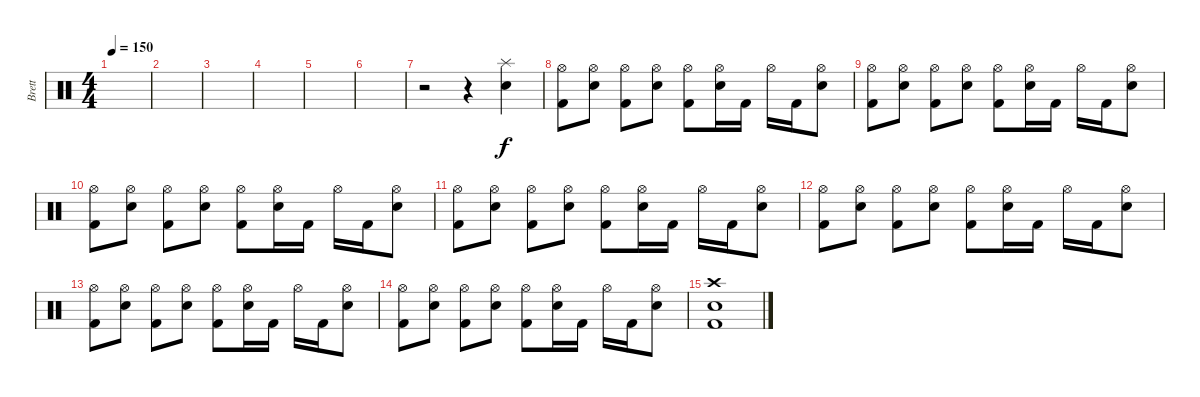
\track ("Brett" "Brett") {instrument percussion}
\staff {score}
\articulation defaults
\ts (4 4)
\tempo 150
\clef neutral
\ks c
|
|
|
|
|
|
r.2 r.4 ("Splash (hit)" "Snare (hit) 2").4 |
("Hi-Hat (open)" "Kick (hit) 2").8 ("Hi-Hat (open)" "Snare (hit) 2").8 ("Hi-Hat (open)" "Kick (hit) 2").8 ("Hi-Hat (open)" "Snare (hit) 2").8 ("Hi-Hat (open)" "Kick (hit) 2").8 ("Hi-Hat (open)" "Snare (hit) 2").16 "Kick (hit) 2".16 "Hi-Hat (open)".16 "Kick (hit) 2".16 ("Hi-Hat (open)" "Snare (hit) 2").8 |
("Hi-Hat (open)" "Kick (hit) 2").8 ("Hi-Hat (open)" "Snare (hit) 2").8 ("Hi-Hat (open)" "Kick (hit) 2").8 ("Hi-Hat (open)" "Snare (hit) 2").8 ("Hi-Hat (open)" "Kick (hit) 2").8 ("Hi-Hat (open)" "Snare (hit) 2").16 "Kick (hit) 2".16 "Hi-Hat (open)".16 "Kick (hit) 2".16 ("Hi-Hat (open)" "Snare (hit) 2").8 |
("Hi-Hat (open)" "Kick (hit) 2").8 ("Hi-Hat (open)" "Snare (hit) 2").8 ("Hi-Hat (open)" "Kick (hit) 2").8 ("Hi-Hat (open)" "Snare (hit) 2").8 ("Hi-Hat (open)" "Kick (hit) 2").8 ("Hi-Hat (open)" "Snare (hit) 2").16 "Kick (hit) 2".16 "Hi-Hat (open)".16 "Kick (hit) 2".16 ("Hi-Hat (open)" "Snare (hit) 2").8 |
("Hi-Hat (open)" "Kick (hit) 2").8 ("Hi-Hat (open)" "Snare (hit) 2").8 ("Hi-Hat (open)" "Kick (hit) 2").8 ("Hi-Hat (open)" "Snare (hit) 2").8 ("Hi-Hat (open)" "Kick (hit) 2").8 ("Hi-Hat (open)" "Snare (hit) 2").16 "Kick (hit) 2".16 "Hi-Hat (open)".16 "Kick (hit) 2".16 ("Hi-Hat (open)" "Snare (hit) 2").8 |
("Hi-Hat (open)" "Kick (hit) 2").8 ("Hi-Hat (open)" "Snare (hit) 2").8 ("Hi-Hat (open)" "Kick (hit) 2").8 ("Hi-Hat (open)" "Snare (hit) 2").8 ("Hi-Hat (open)" "Kick (hit) 2").8 ("Hi-Hat (open)" "Snare (hit) 2").16 "Kick (hit) 2".16 "Hi-Hat (open)".16 "Kick (hit) 2".16 ("Hi-Hat (open)" "Snare (hit) 2").8 |
("Hi-Hat (open)" "Kick (hit) 2").8 ("Hi-Hat (open)" "Snare (hit) 2").8 ("Hi-Hat (open)" "Kick (hit) 2").8 ("Hi-Hat (open)" "Snare (hit) 2").8 ("Hi-Hat (open)" "Kick (hit) 2").8 ("Hi-Hat (open)" "Snare (hit) 2").16 "Kick (hit) 2".16 "Hi-Hat (open)".16 "Kick (hit) 2".16 ("Hi-Hat (open)" "Snare (hit) 2").8 |
("Hi-Hat (open)" "Kick (hit) 2").8 ("Hi-Hat (open)" "Snare (hit) 2").8 ("Hi-Hat (open)" "Kick (hit) 2").8 ("Hi-Hat (open)" "Snare (hit) 2").8 ("Hi-Hat (open)" "Kick (hit) 2").8 ("Hi-Hat (open)" "Snare (hit) 2").16 "Kick (hit) 2".16 "Hi-Hat (open)".16 "Kick (hit) 2".16 ("Hi-Hat (open)" "Snare (hit) 2").8 |
("Crash high (hit)" "Snare (hit) 2" "Kick (hit) 2").1
